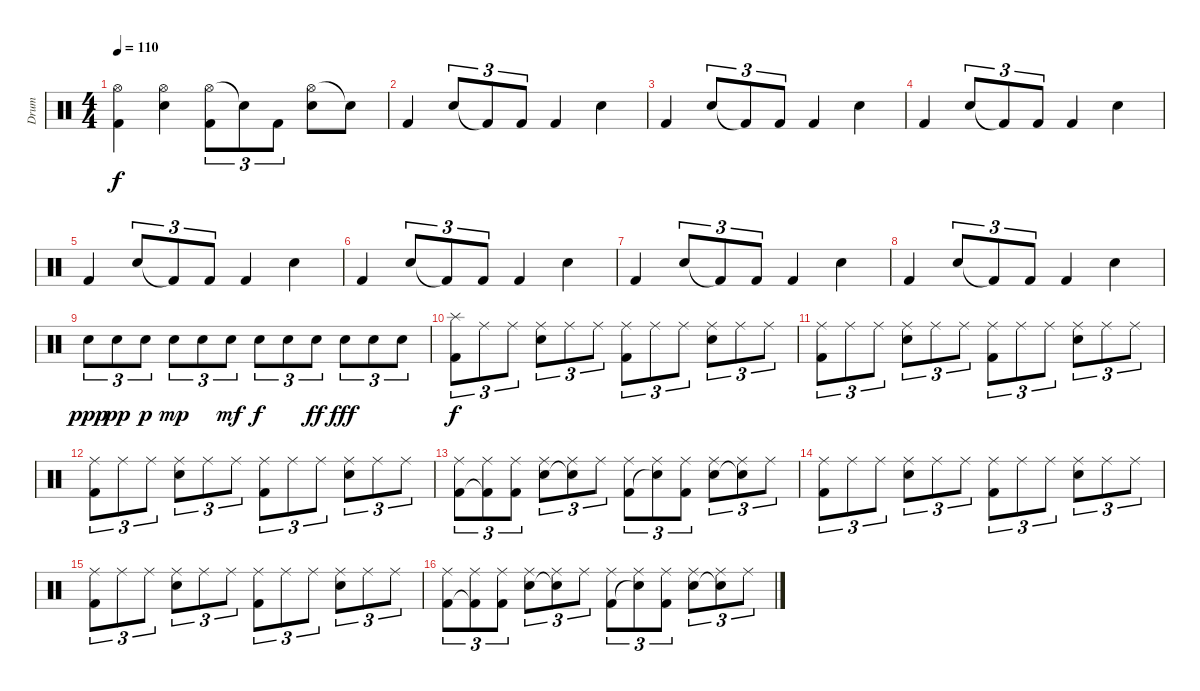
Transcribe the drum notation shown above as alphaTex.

\track ("Drum" "Drum") {instrument percussion}
\staff {score}
\articulation defaults
\ts (4 4)
\tempo 110
\clef neutral
\ks c
("Hi-Hat (open)" "Kick (hit) 2").4{dy f} ("Hi-Hat (open)" "Electric Snare (hit)").4 ("Hi-Hat (open)" "Kick (hit) 2").8{tu (3 2)} "Snare (hit)"{t}.8{tu (3 2)} "Kick (hit) 2".8{tu (3 2)} ("Hi-Hat (open)" "Electric Snare (hit)").8 "Snare (hit)"{t}.8 |
"Kick (hit) 2".4 "Electric Snare (hit)".8{tu (3 2)} "Kick (hit) 2"{t}.8{tu (3 2)} "Kick (hit) 2".8{tu (3 2)} "Kick (hit) 2".4 "Electric Snare (hit)".4 |
"Kick (hit) 2".4 "Electric Snare (hit)".8{tu (3 2)} "Kick (hit) 2"{t}.8{tu (3 2)} "Kick (hit) 2".8{tu (3 2)} "Kick (hit) 2".4 "Electric Snare (hit)".4 |
"Kick (hit) 2".4 "Electric Snare (hit)".8{tu (3 2)} "Kick (hit) 2"{t}.8{tu (3 2)} "Kick (hit) 2".8{tu (3 2)} "Kick (hit) 2".4 "Electric Snare (hit)".4 |
"Kick (hit) 2".4 "Electric Snare (hit)".8{tu (3 2)} "Kick (hit) 2"{t}.8{tu (3 2)} "Kick (hit) 2".8{tu (3 2)} "Kick (hit) 2".4 "Electric Snare (hit)".4 |
"Kick (hit) 2".4 "Electric Snare (hit)".8{tu (3 2)} "Kick (hit) 2"{t}.8{tu (3 2)} "Kick (hit) 2".8{tu (3 2)} "Kick (hit) 2".4 "Electric Snare (hit)".4 |
"Kick (hit) 2".4 "Electric Snare (hit)".8{tu (3 2)} "Kick (hit) 2"{t}.8{tu (3 2)} "Kick (hit) 2".8{tu (3 2)} "Kick (hit) 2".4 "Electric Snare (hit)".4 |
"Kick (hit) 2".4 "Electric Snare (hit)".8{tu (3 2)} "Kick (hit) 2"{t}.8{tu (3 2)} "Kick (hit) 2".8{tu (3 2)} "Kick (hit) 2".4 "Electric Snare (hit)".4 |
"Electric Snare (hit)".8{tu (3 2) dy ppp} "Electric Snare (hit)".8{tu (3 2) dy pp} "Electric Snare (hit)".8{tu (3 2) dy p} "Electric Snare (hit)".8{tu (3 2) dy mp} "Electric Snare (hit)".8{tu (3 2)} "Electric Snare (hit)".8{tu (3 2) dy mf} "Electric Snare (hit)".8{tu (3 2) dy f} "Electric Snare (hit)".8{tu (3 2)} "Electric Snare (hit)".8{tu (3 2) dy ff} "Electric Snare (hit)".8{tu (3 2) dy fff} "Electric Snare (hit)".8{tu (3 2)} "Electric Snare (hit)".8{tu (3 2)} |
("Splash (hit)" "Kick (hit) 2").8{tu (3 2) dy f} "Ride (middle)".8{tu (3 2)} "Ride (middle)".8{tu (3 2)} ("Ride (middle)" "Electric Snare (hit)").8{tu (3 2)} "Ride (middle)".8{tu (3 2)} "Ride (middle)".8{tu (3 2)} ("Ride (middle)" "Kick (hit) 2").8{tu (3 2)} "Ride (middle)".8{tu (3 2)} "Ride (middle)".8{tu (3 2)} ("Ride (middle)" "Electric Snare (hit)").8{tu (3 2)} "Ride (middle)".8{tu (3 2)} "Ride (middle)".8{tu (3 2)} |
("Ride (middle)" "Kick (hit) 2").8{tu (3 2)} "Ride (middle)".8{tu (3 2)} "Ride (middle)".8{tu (3 2)} ("Ride (middle)" "Electric Snare (hit)").8{tu (3 2)} "Ride (middle)".8{tu (3 2)} "Ride (middle)".8{tu (3 2)} ("Ride (middle)" "Kick (hit) 2").8{tu (3 2)} "Ride (middle)".8{tu (3 2)} "Ride (middle)".8{tu (3 2)} ("Ride (middle)" "Electric Snare (hit)").8{tu (3 2)} "Ride (middle)".8{tu (3 2)} "Ride (middle)".8{tu (3 2)} |
("Ride (middle)" "Kick (hit) 2").8{tu (3 2)} "Ride (middle)".8{tu (3 2)} "Ride (middle)".8{tu (3 2)} ("Ride (middle)" "Electric Snare (hit)").8{tu (3 2)} "Ride (middle)".8{tu (3 2)} "Ride (middle)".8{tu (3 2)} ("Ride (middle)" "Kick (hit) 2").8{tu (3 2)} "Ride (middle)".8{tu (3 2)} "Ride (middle)".8{tu (3 2)} ("Ride (middle)" "Electric Snare (hit)").8{tu (3 2)} "Ride (middle)".8{tu (3 2)} "Ride (middle)".8{tu (3 2)} |
("Ride (middle)" "Kick (hit) 2").8{tu (3 2)} ("Ride (middle)" "Kick (hit) 2"{t}).8{tu (3 2)} ("Ride (middle)" "Kick (hit) 2").8{tu (3 2)} ("Ride (middle)" "Electric Snare (hit)").8{tu (3 2)} ("Ride (middle)" "Snare (hit)"{t}).8{tu (3 2)} "Ride (middle)".8{tu (3 2)} ("Ride (middle)" "Kick (hit) 2").8{tu (3 2)} ("Ride (middle)" "Snare (hit)"{t}).8{tu (3 2)} ("Ride (middle)" "Kick (hit) 2").8{tu (3 2)} ("Ride (middle)" "Electric Snare (hit)").8{tu (3 2)} ("Ride (middle)" "Snare (hit)"{t}).8{tu (3 2)} "Ride (middle)".8{tu (3 2)} |
("Ride (middle)" "Kick (hit) 2").8{tu (3 2)} "Ride (middle)".8{tu (3 2)} "Ride (middle)".8{tu (3 2)} ("Ride (middle)" "Electric Snare (hit)").8{tu (3 2)} "Ride (middle)".8{tu (3 2)} "Ride (middle)".8{tu (3 2)} ("Ride (middle)" "Kick (hit) 2").8{tu (3 2)} "Ride (middle)".8{tu (3 2)} "Ride (middle)".8{tu (3 2)} ("Ride (middle)" "Electric Snare (hit)").8{tu (3 2)} "Ride (middle)".8{tu (3 2)} "Ride (middle)".8{tu (3 2)} |
("Ride (middle)" "Kick (hit) 2").8{tu (3 2)} "Ride (middle)".8{tu (3 2)} "Ride (middle)".8{tu (3 2)} ("Ride (middle)" "Electric Snare (hit)").8{tu (3 2)} "Ride (middle)".8{tu (3 2)} "Ride (middle)".8{tu (3 2)} ("Ride (middle)" "Kick (hit) 2").8{tu (3 2)} "Ride (middle)".8{tu (3 2)} "Ride (middle)".8{tu (3 2)} ("Ride (middle)" "Electric Snare (hit)").8{tu (3 2)} "Ride (middle)".8{tu (3 2)} "Ride (middle)".8{tu (3 2)} |
("Ride (middle)" "Kick (hit) 2").8{tu (3 2)} ("Ride (middle)" "Kick (hit) 2"{t}).8{tu (3 2)} ("Ride (middle)" "Kick (hit) 2").8{tu (3 2)} ("Ride (middle)" "Electric Snare (hit)").8{tu (3 2)} ("Ride (middle)" "Snare (hit)"{t}).8{tu (3 2)} "Ride (middle)".8{tu (3 2)} ("Ride (middle)" "Kick (hit) 2").8{tu (3 2)} ("Ride (middle)" "Snare (hit)"{t}).8{tu (3 2)} ("Ride (middle)" "Kick (hit) 2").8{tu (3 2)} ("Ride (middle)" "Electric Snare (hit)").8{tu (3 2)} ("Ride (middle)" "Snare (hit)"{t}).8{tu (3 2)} "Ride (middle)".8{tu (3 2)}
